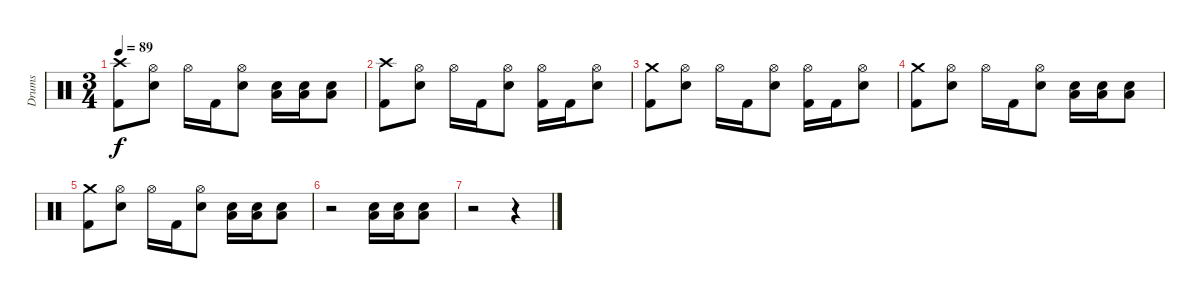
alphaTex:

\track ("Drums" "Drums") {instrument percussion}
\staff {score}
\articulation defaults
\ts (3 4)
\tempo 89
\clef neutral
\ks c
("Crash high (hit)" "Kick (hit) 2").8{dy f} ("Hi-Hat (open)" "Electric Snare (hit)").8 "Hi-Hat (open)".16 "Kick (hit) 2".16 ("Hi-Hat (open)" "Electric Snare (hit)").8 ("Low Floor Tom (hit)" "Electric Snare (hit)").16 ("Low Floor Tom (hit)" "Electric Snare (hit)").16 ("Low Floor Tom (hit)" "Electric Snare (hit)").8 |
("Crash high (hit)" "Kick (hit) 2").8 ("Hi-Hat (open)" "Electric Snare (hit)").8 "Hi-Hat (open)".16 "Kick (hit) 2".16 ("Hi-Hat (open)" "Electric Snare (hit)").8 ("Hi-Hat (open)" "Kick (hit) 2").16 "Kick (hit) 2".16 ("Hi-Hat (open)" "Electric Snare (hit)").8 |
("Crash medium (hit)" "Kick (hit) 2").8 ("Hi-Hat (open)" "Electric Snare (hit)").8 "Hi-Hat (open)".16 "Kick (hit) 2".16 ("Hi-Hat (open)" "Electric Snare (hit)").8 ("Hi-Hat (open)" "Kick (hit) 2").16 "Kick (hit) 2".16 ("Hi-Hat (open)" "Electric Snare (hit)").8 |
("Crash medium (hit)" "Kick (hit) 2").8 ("Hi-Hat (open)" "Electric Snare (hit)").8 "Hi-Hat (open)".16 "Kick (hit) 2".16 ("Hi-Hat (open)" "Electric Snare (hit)").8 ("Low Floor Tom (hit)" "Electric Snare (hit)").16 ("Low Floor Tom (hit)" "Electric Snare (hit)").16 ("Low Floor Tom (hit)" "Electric Snare (hit)").8 |
("Crash medium (hit)" "Kick (hit) 2").8 ("Hi-Hat (open)" "Electric Snare (hit)").8 "Hi-Hat (open)".16 "Kick (hit) 2".16 ("Hi-Hat (open)" "Electric Snare (hit)").8 ("Low Floor Tom (hit)" "Electric Snare (hit)").16 ("Low Floor Tom (hit)" "Electric Snare (hit)").16 ("Low Floor Tom (hit)" "Electric Snare (hit)").8 |
r.2 ("Low Floor Tom (hit)" "Electric Snare (hit)").16 ("Low Floor Tom (hit)" "Electric Snare (hit)").16 ("Low Floor Tom (hit)" "Electric Snare (hit)").8 |
r.2 r.4
